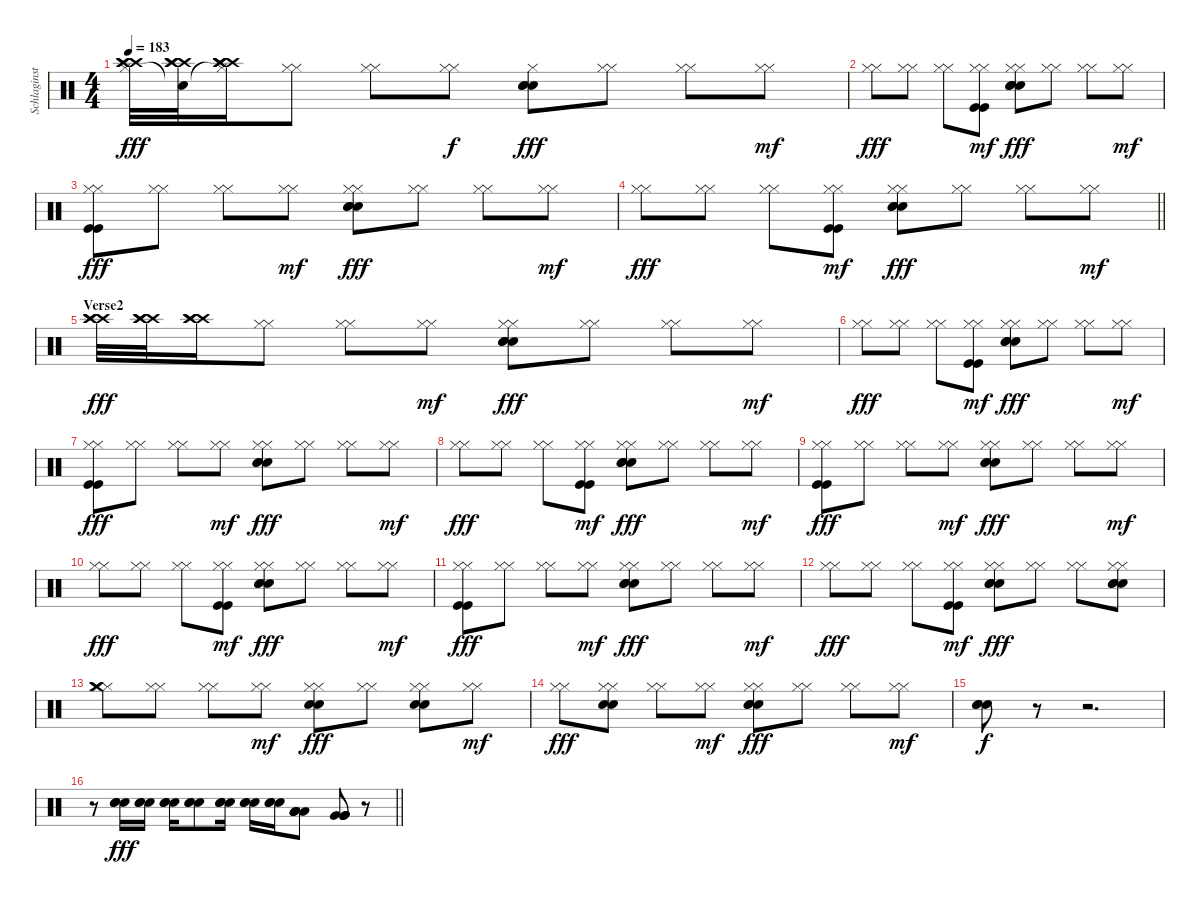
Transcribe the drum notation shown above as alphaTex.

\track ("Schlaginstrumente - Auswahl" "Schlaginst") {instrument percussion}
\staff {score}
\articulation defaults
\ts (4 4)
\tempo 183
\clef neutral
\ks c
("Hi-Hat (closed)" "Crash high (hit)" "Crash high (hit)" "Crash high (hit)" "Crash high (hit)").32{dy fff} ("Snare (hit)"{t} "Crash high (hit)" "Crash high (hit)" "Crash high (hit)" "Crash high (hit)").32 ("Hi-Hat (closed)"{t} "Crash high (hit)" "Crash high (hit)" "Crash high (hit)" "Crash high (hit)").16 ("Hi-Hat (closed)" "Hi-Hat (closed)").8 ("Hi-Hat (closed)" "Hi-Hat (closed)").8 ("Hi-Hat (closed)" "Hi-Hat (closed)").8{dy f} ("Hi-Hat (closed)" "Snare (hit) 2" "Snare (hit) 2" "Snare (hit) 2").8{dy fff} ("Hi-Hat (closed)" "Hi-Hat (closed)").8 ("Hi-Hat (closed)" "Hi-Hat (closed)").8 ("Hi-Hat (closed)" "Hi-Hat (closed)").8{dy mf} |
("Hi-Hat (closed)" "Hi-Hat (closed)").8{dy fff} ("Hi-Hat (closed)" "Hi-Hat (closed)").8 ("Hi-Hat (closed)" "Hi-Hat (closed)").8 ("Hi-Hat (closed)" "Hi-Hat (closed)" "Kick (hit)" "Kick (hit)").8{dy mf} ("Hi-Hat (closed)" "Hi-Hat (closed)" "Snare (hit) 2" "Snare (hit) 2" "Snare (hit) 2" "Snare (hit) 2").8{dy fff} ("Hi-Hat (closed)" "Hi-Hat (closed)").8 ("Hi-Hat (closed)" "Hi-Hat (closed)").8 ("Hi-Hat (closed)" "Hi-Hat (closed)").8{dy mf} |
("Hi-Hat (closed)" "Hi-Hat (closed)" "Kick (hit)" "Kick (hit)").8{dy fff} ("Hi-Hat (closed)" "Hi-Hat (closed)").8 ("Hi-Hat (closed)" "Hi-Hat (closed)").8 ("Hi-Hat (closed)" "Hi-Hat (closed)").8{dy mf} ("Hi-Hat (closed)" "Hi-Hat (closed)" "Snare (hit) 2" "Snare (hit) 2" "Snare (hit) 2").8{dy fff} ("Hi-Hat (closed)" "Hi-Hat (closed)").8 ("Hi-Hat (closed)" "Hi-Hat (closed)").8 ("Hi-Hat (closed)" "Hi-Hat (closed)").8{dy mf} |
\barLineRight lightlight
("Hi-Hat (closed)" "Hi-Hat (closed)").8{dy fff} ("Hi-Hat (closed)" "Hi-Hat (closed)").8 ("Hi-Hat (closed)" "Hi-Hat (closed)").8 ("Hi-Hat (closed)" "Hi-Hat (closed)" "Kick (hit)" "Kick (hit)").8{dy mf} ("Hi-Hat (closed)" "Hi-Hat (closed)" "Snare (hit) 2" "Snare (hit) 2" "Snare (hit) 2").8{dy fff} ("Hi-Hat (closed)" "Hi-Hat (closed)").8 ("Hi-Hat (closed)" "Hi-Hat (closed)").8 ("Hi-Hat (closed)" "Hi-Hat (closed)").8{dy mf} |
\section ("" "Verse2")
("Crash high (hit)" "Crash high (hit)" "Crash high (hit)" "Crash high (hit)").32{dy fff} ("Crash high (hit)" "Crash high (hit)" "Crash high (hit)" "Crash high (hit)").32 ("Crash high (hit)" "Crash high (hit)" "Crash high (hit)" "Crash high (hit)").16 ("Hi-Hat (closed)" "Hi-Hat (closed)").8 ("Hi-Hat (closed)" "Hi-Hat (closed)").8 ("Hi-Hat (closed)" "Hi-Hat (closed)").8{dy mf} ("Hi-Hat (closed)" "Hi-Hat (closed)" "Snare (hit) 2" "Snare (hit) 2" "Snare (hit) 2").8{dy fff} ("Hi-Hat (closed)" "Hi-Hat (closed)").8 ("Hi-Hat (closed)" "Hi-Hat (closed)").8 ("Hi-Hat (closed)" "Hi-Hat (closed)").8{dy mf} |
("Hi-Hat (closed)" "Hi-Hat (closed)").8{dy fff} ("Hi-Hat (closed)" "Hi-Hat (closed)").8 ("Hi-Hat (closed)" "Hi-Hat (closed)").8 ("Hi-Hat (closed)" "Hi-Hat (closed)" "Kick (hit)" "Kick (hit)").8{dy mf} ("Hi-Hat (closed)" "Hi-Hat (closed)" "Snare (hit) 2" "Snare (hit) 2" "Snare (hit) 2").8{dy fff} ("Hi-Hat (closed)" "Hi-Hat (closed)").8 ("Hi-Hat (closed)" "Hi-Hat (closed)").8 ("Hi-Hat (closed)" "Hi-Hat (closed)").8{dy mf} |
("Hi-Hat (closed)" "Hi-Hat (closed)" "Kick (hit)" "Kick (hit)").8{dy fff} ("Hi-Hat (closed)" "Hi-Hat (closed)").8 ("Hi-Hat (closed)" "Hi-Hat (closed)").8 ("Hi-Hat (closed)" "Hi-Hat (closed)").8{dy mf} ("Hi-Hat (closed)" "Hi-Hat (closed)" "Snare (hit) 2" "Snare (hit) 2" "Snare (hit) 2").8{dy fff} ("Hi-Hat (closed)" "Hi-Hat (closed)").8 ("Hi-Hat (closed)" "Hi-Hat (closed)").8 ("Hi-Hat (closed)" "Hi-Hat (closed)").8{dy mf} |
("Hi-Hat (closed)" "Hi-Hat (closed)").8{dy fff} ("Hi-Hat (closed)" "Hi-Hat (closed)").8 ("Hi-Hat (closed)" "Hi-Hat (closed)").8 ("Hi-Hat (closed)" "Hi-Hat (closed)" "Kick (hit)" "Kick (hit)").8{dy mf} ("Hi-Hat (closed)" "Hi-Hat (closed)" "Snare (hit) 2" "Snare (hit) 2" "Snare (hit) 2").8{dy fff} ("Hi-Hat (closed)" "Hi-Hat (closed)").8 ("Hi-Hat (closed)" "Hi-Hat (closed)").8 ("Hi-Hat (closed)" "Hi-Hat (closed)").8{dy mf} |
("Hi-Hat (closed)" "Hi-Hat (closed)" "Kick (hit)" "Kick (hit)").8{dy fff} ("Hi-Hat (closed)" "Hi-Hat (closed)").8 ("Hi-Hat (closed)" "Hi-Hat (closed)").8 ("Hi-Hat (closed)" "Hi-Hat (closed)").8{dy mf} ("Hi-Hat (closed)" "Hi-Hat (closed)" "Snare (hit) 2" "Snare (hit) 2" "Snare (hit) 2").8{dy fff} ("Hi-Hat (closed)" "Hi-Hat (closed)").8 ("Hi-Hat (closed)" "Hi-Hat (closed)").8 ("Hi-Hat (closed)" "Hi-Hat (closed)").8{dy mf} |
("Hi-Hat (closed)" "Hi-Hat (closed)").8{dy fff} ("Hi-Hat (closed)" "Hi-Hat (closed)").8 ("Hi-Hat (closed)" "Hi-Hat (closed)").8 ("Hi-Hat (closed)" "Hi-Hat (closed)" "Kick (hit)" "Kick (hit)").8{dy mf} ("Hi-Hat (closed)" "Hi-Hat (closed)" "Snare (hit) 2" "Snare (hit) 2" "Snare (hit) 2").8{dy fff} ("Hi-Hat (closed)" "Hi-Hat (closed)").8 ("Hi-Hat (closed)" "Hi-Hat (closed)").8 ("Hi-Hat (closed)" "Hi-Hat (closed)").8{dy mf} |
("Hi-Hat (closed)" "Hi-Hat (closed)" "Kick (hit)" "Kick (hit)").8{dy fff} ("Hi-Hat (closed)" "Hi-Hat (closed)").8 ("Hi-Hat (closed)" "Hi-Hat (closed)").8 ("Hi-Hat (closed)" "Hi-Hat (closed)").8{dy mf} ("Hi-Hat (closed)" "Hi-Hat (closed)" "Snare (hit) 2" "Snare (hit) 2" "Snare (hit) 2").8{dy fff} ("Hi-Hat (closed)" "Hi-Hat (closed)").8 ("Hi-Hat (closed)" "Hi-Hat (closed)").8 ("Hi-Hat (closed)" "Hi-Hat (closed)").8{dy mf} |
("Hi-Hat (closed)" "Hi-Hat (closed)").8{dy fff} ("Hi-Hat (closed)" "Hi-Hat (closed)").8 ("Hi-Hat (closed)" "Hi-Hat (closed)").8 ("Hi-Hat (closed)" "Hi-Hat (closed)" "Kick (hit)" "Kick (hit)").8{dy mf} ("Hi-Hat (closed)" "Hi-Hat (closed)" "Snare (hit) 2" "Snare (hit) 2" "Snare (hit) 2").8{dy fff} ("Hi-Hat (closed)" "Hi-Hat (closed)").8 ("Hi-Hat (closed)" "Hi-Hat (closed)").8 ("Hi-Hat (closed)" "Hi-Hat (closed)" "Snare (hit) 2" "Snare (hit) 2" "Snare (hit) 2").8 |
("Hi-Hat (closed)" "Hi-Hat (closed)" "Crash medium (hit)" "Crash medium (hit)").8 ("Hi-Hat (closed)" "Hi-Hat (closed)").8 ("Hi-Hat (closed)" "Hi-Hat (closed)").8 ("Hi-Hat (closed)" "Hi-Hat (closed)").8{dy mf} ("Hi-Hat (closed)" "Hi-Hat (closed)" "Snare (hit) 2" "Snare (hit) 2").8{dy fff} ("Hi-Hat (closed)" "Hi-Hat (closed)").8 ("Hi-Hat (closed)" "Hi-Hat (closed)" "Snare (hit) 2" "Snare (hit) 2").8 ("Hi-Hat (closed)" "Hi-Hat (closed)").8{dy mf} |
("Hi-Hat (closed)" "Hi-Hat (closed)").8{dy fff} ("Hi-Hat (closed)" "Hi-Hat (closed)" "Snare (hit) 2" "Snare (hit) 2").8 ("Hi-Hat (closed)" "Hi-Hat (closed)").8 ("Hi-Hat (closed)" "Hi-Hat (closed)").8{dy mf} ("Hi-Hat (closed)" "Hi-Hat (closed)" "Snare (hit) 2" "Snare (hit) 2" "Snare (hit) 2").8{dy fff} ("Hi-Hat (closed)" "Hi-Hat (closed)").8 ("Hi-Hat (closed)" "Hi-Hat (closed)").8 ("Hi-Hat (closed)" "Hi-Hat (closed)").8{dy mf} |
("Snare (hit) 2" "Snare (hit) 2" "Snare (hit) 2").8{dy f} r.8 r.2{d} |
\barLineRight lightlight
r.8 ("Snare (hit) 2" "Snare (hit) 2" "Snare (hit) 2").16{dy fff} ("Snare (hit) 2" "Snare (hit) 2" "Snare (hit) 2").16 ("Snare (hit) 2" "Snare (hit) 2" "Snare (hit) 2").16 ("Snare (hit) 2" "Snare (hit) 2" "Snare (hit) 2").8 ("Snare (hit) 2" "Snare (hit) 2" "Snare (hit) 2").16 ("Snare (hit) 2" "Snare (hit) 2" "Snare (hit) 2").16 ("Snare (hit) 2" "Snare (hit) 2" "Snare (hit) 2").16 ("Low Tom (hit)" "Low Tom (hit)" "Low Tom (hit)" "Low Tom (hit)").8 ("Very Low Tom (hit)" "Very Low Tom (hit)" "Very Low Tom (hit)" "Very Low Tom (hit)").8 r.8
